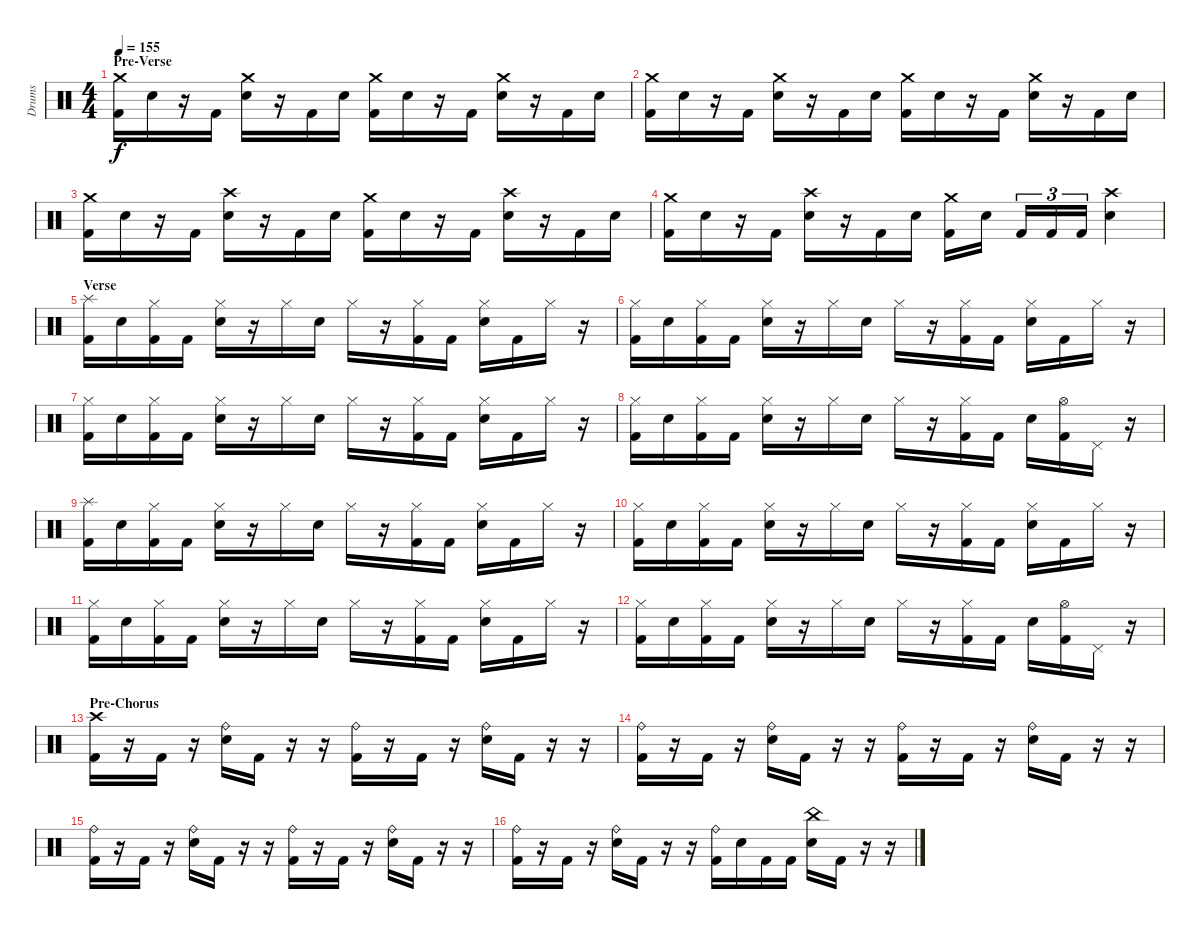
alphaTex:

\track ("Drums" "Drums") {instrument percussion}
\staff {score}
\articulation defaults
\ts (4 4)
\section ("" "Pre-Verse")
\tempo 155
\clef neutral
\ks c
("Crash medium (hit)" "Kick (hit) 2").16{dy f} "Electric Snare (hit)".16 r.16 "Kick (hit) 2".16 ("Crash medium (hit)" "Electric Snare (hit)").16 r.16 "Kick (hit) 2".16 "Electric Snare (hit)".16 ("Crash medium (hit)" "Kick (hit) 2").16 "Electric Snare (hit)".16 r.16 "Kick (hit) 2".16 ("Crash medium (hit)" "Electric Snare (hit)").16 r.16 "Kick (hit) 2".16 "Electric Snare (hit)".16 |
("Crash medium (hit)" "Kick (hit) 2").16 "Electric Snare (hit)".16 r.16 "Kick (hit) 2".16 ("Crash medium (hit)" "Electric Snare (hit)").16 r.16 "Kick (hit) 2".16 "Electric Snare (hit)".16 ("Crash medium (hit)" "Kick (hit) 2").16 "Electric Snare (hit)".16 r.16 "Kick (hit) 2".16 ("Crash medium (hit)" "Electric Snare (hit)").16 r.16 "Kick (hit) 2".16 "Electric Snare (hit)".16 |
("Crash medium (hit)" "Kick (hit) 2").16 "Electric Snare (hit)".16 r.16 "Kick (hit) 2".16 ("Crash high (hit)" "Electric Snare (hit)").16 r.16 "Kick (hit) 2".16 "Electric Snare (hit)".16 ("Crash medium (hit)" "Kick (hit) 2").16 "Electric Snare (hit)".16 r.16 "Kick (hit) 2".16 ("Crash high (hit)" "Electric Snare (hit)").16 r.16 "Kick (hit) 2".16 "Electric Snare (hit)".16 |
("Crash medium (hit)" "Kick (hit) 2").16 "Electric Snare (hit)".16 r.16 "Kick (hit) 2".16 ("Crash high (hit)" "Electric Snare (hit)").16 r.16 "Kick (hit) 2".16 "Electric Snare (hit)".16 ("Crash medium (hit)" "Kick (hit) 2").16 "Electric Snare (hit)".16 "Kick (hit) 2".16{tu (3 2)} "Kick (hit) 2".16{tu (3 2)} "Kick (hit) 2".16{tu (3 2)} ("Crash high (hit)" "Electric Snare (hit)").4 |
\section ("" "Verse")
("Splash (hit)" "Kick (hit) 2").16 "Electric Snare (hit)".16 ("Hi-Hat (closed)" "Kick (hit) 2").16 "Kick (hit) 2".16 ("Hi-Hat (closed)" "Electric Snare (hit)").16 r.16 "Hi-Hat (closed)".16 "Electric Snare (hit)".16 "Hi-Hat (closed)".16 r.16 ("Hi-Hat (closed)" "Kick (hit) 2").16 "Kick (hit) 2".16 ("Hi-Hat (closed)" "Electric Snare (hit)").16 "Kick (hit) 2".16 "Hi-Hat (closed)".16 r.16 |
("Hi-Hat (closed)" "Kick (hit) 2").16 "Electric Snare (hit)".16 ("Hi-Hat (closed)" "Kick (hit) 2").16 "Kick (hit) 2".16 ("Hi-Hat (closed)" "Electric Snare (hit)").16 r.16 "Hi-Hat (closed)".16 "Electric Snare (hit)".16 "Hi-Hat (closed)".16 r.16 ("Hi-Hat (closed)" "Kick (hit) 2").16 "Kick (hit) 2".16 ("Hi-Hat (closed)" "Electric Snare (hit)").16 "Kick (hit) 2".16 "Hi-Hat (closed)".16 r.16 |
("Hi-Hat (closed)" "Kick (hit) 2").16 "Electric Snare (hit)".16 ("Hi-Hat (closed)" "Kick (hit) 2").16 "Kick (hit) 2".16 ("Hi-Hat (closed)" "Electric Snare (hit)").16 r.16 "Hi-Hat (closed)".16 "Electric Snare (hit)".16 "Hi-Hat (closed)".16 r.16 ("Hi-Hat (closed)" "Kick (hit) 2").16 "Kick (hit) 2".16 ("Hi-Hat (closed)" "Electric Snare (hit)").16 "Kick (hit) 2".16 "Hi-Hat (closed)".16 r.16 |
("Hi-Hat (closed)" "Kick (hit) 2").16 "Electric Snare (hit)".16 ("Hi-Hat (closed)" "Kick (hit) 2").16 "Kick (hit) 2".16 ("Hi-Hat (closed)" "Electric Snare (hit)").16 r.16 "Hi-Hat (closed)".16 "Electric Snare (hit)".16 "Hi-Hat (closed)".16 r.16 ("Hi-Hat (closed)" "Kick (hit) 2").16 "Kick (hit) 2".16 "Electric Snare (hit)".16 ("Hi-Hat (open)" "Kick (hit) 2").16 "Pedal Hi-Hat (hit)".16 r.16 |
("Splash (hit)" "Kick (hit) 2").16 "Electric Snare (hit)".16 ("Hi-Hat (closed)" "Kick (hit) 2").16 "Kick (hit) 2".16 ("Hi-Hat (closed)" "Electric Snare (hit)").16 r.16 "Hi-Hat (closed)".16 "Electric Snare (hit)".16 "Hi-Hat (closed)".16 r.16 ("Hi-Hat (closed)" "Kick (hit) 2").16 "Kick (hit) 2".16 ("Hi-Hat (closed)" "Electric Snare (hit)").16 "Kick (hit) 2".16 "Hi-Hat (closed)".16 r.16 |
("Hi-Hat (closed)" "Kick (hit) 2").16 "Electric Snare (hit)".16 ("Hi-Hat (closed)" "Kick (hit) 2").16 "Kick (hit) 2".16 ("Hi-Hat (closed)" "Electric Snare (hit)").16 r.16 "Hi-Hat (closed)".16 "Electric Snare (hit)".16 "Hi-Hat (closed)".16 r.16 ("Hi-Hat (closed)" "Kick (hit) 2").16 "Kick (hit) 2".16 ("Hi-Hat (closed)" "Electric Snare (hit)").16 "Kick (hit) 2".16 "Hi-Hat (closed)".16 r.16 |
("Hi-Hat (closed)" "Kick (hit) 2").16 "Electric Snare (hit)".16 ("Hi-Hat (closed)" "Kick (hit) 2").16 "Kick (hit) 2".16 ("Hi-Hat (closed)" "Electric Snare (hit)").16 r.16 "Hi-Hat (closed)".16 "Electric Snare (hit)".16 "Hi-Hat (closed)".16 r.16 ("Hi-Hat (closed)" "Kick (hit) 2").16 "Kick (hit) 2".16 ("Hi-Hat (closed)" "Electric Snare (hit)").16 "Kick (hit) 2".16 "Hi-Hat (closed)".16 r.16 |
("Hi-Hat (closed)" "Kick (hit) 2").16 "Electric Snare (hit)".16 ("Hi-Hat (closed)" "Kick (hit) 2").16 "Kick (hit) 2".16 ("Hi-Hat (closed)" "Electric Snare (hit)").16 r.16 "Hi-Hat (closed)".16 "Electric Snare (hit)".16 "Hi-Hat (closed)".16 r.16 ("Hi-Hat (closed)" "Kick (hit) 2").16 "Kick (hit) 2".16 "Electric Snare (hit)".16 ("Hi-Hat (open)" "Kick (hit) 2").16 "Pedal Hi-Hat (hit)".16 r.16 |
\section ("" "Pre-Chorus")
("Crash high (hit)" "Kick (hit) 2").16 r.16 "Kick (hit) 2".16 r.16 ("Ride (bell)" "Electric Snare (hit)").16 "Kick (hit) 2".16 r.16 r.16 ("Ride (bell)" "Kick (hit) 2").16 r.16 "Kick (hit) 2".16 r.16 ("Ride (bell)" "Electric Snare (hit)").16 "Kick (hit) 2".16 r.16 r.16 |
("Ride (bell)" "Kick (hit) 2").16 r.16 "Kick (hit) 2".16 r.16 ("Ride (bell)" "Electric Snare (hit)").16 "Kick (hit) 2".16 r.16 r.16 ("Ride (bell)" "Kick (hit) 2").16 r.16 "Kick (hit) 2".16 r.16 ("Ride (bell)" "Electric Snare (hit)").16 "Kick (hit) 2".16 r.16 r.16 |
("Ride (bell)" "Kick (hit) 2").16 r.16 "Kick (hit) 2".16 r.16 ("Ride (bell)" "Electric Snare (hit)").16 "Kick (hit) 2".16 r.16 r.16 ("Ride (bell)" "Kick (hit) 2").16 r.16 "Kick (hit) 2".16 r.16 ("Ride (bell)" "Electric Snare (hit)").16 "Kick (hit) 2".16 r.16 r.16 |
("Ride (bell)" "Kick (hit) 2").16 r.16 "Kick (hit) 2".16 r.16 ("Ride (bell)" "Electric Snare (hit)").16 "Kick (hit) 2".16 r.16 r.16 ("Ride (bell)" "Kick (hit) 2").16 "Electric Snare (hit)".16 "Kick (hit) 2".16 "Kick (hit) 2".16 ("China (hit)" "Electric Snare (hit)").16 "Kick (hit) 2".16 r.16 r.16
